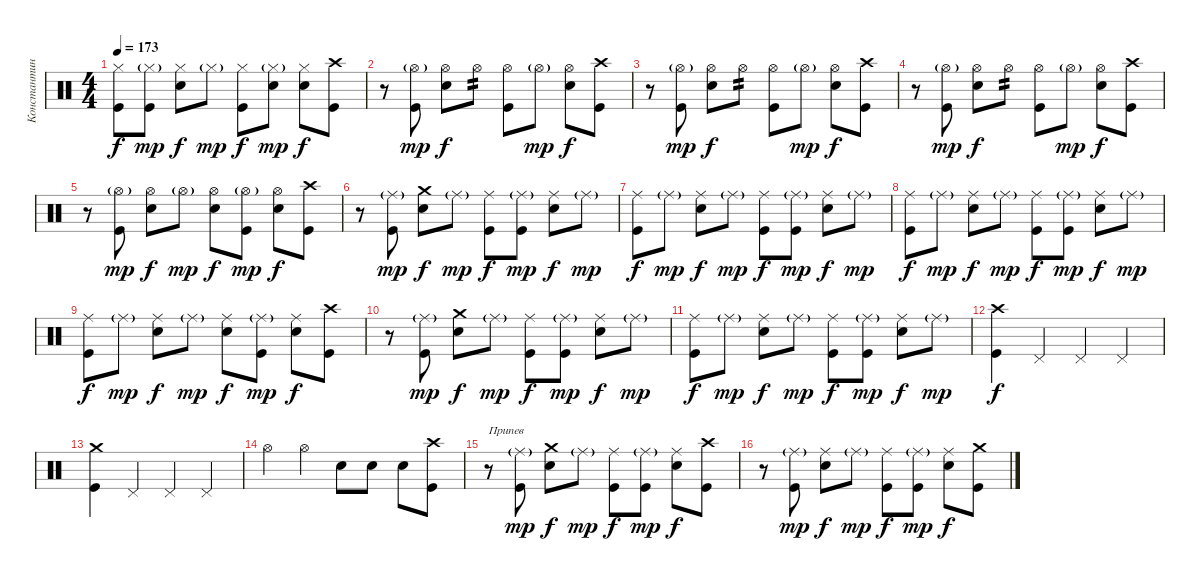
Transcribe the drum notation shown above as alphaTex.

\track ("Константин Дементьев" "Константин") {instrument percussion}
\staff {score}
\articulation defaults
\ts (4 4)
\tempo 173
\clef neutral
\ks c
("Hi-Hat (closed)" "Kick (hit)").8{dy f} ("Hi-Hat (closed)"{g} "Kick (hit)").8{dy mp} ("Hi-Hat (closed)" "Electric Snare (hit)").8{dy f} "Hi-Hat (closed)"{g}.8{dy mp} ("Hi-Hat (closed)" "Kick (hit)").8{dy f} ("Hi-Hat (closed)"{g} "Electric Snare (hit)").8{dy mp} ("Hi-Hat (closed)" "Electric Snare (hit)").8{dy f} ("Crash high (hit)" "Kick (hit)").8 |
r.8 ("Hi-Hat (open)"{g} "Kick (hit)").8{dy mp} ("Hi-Hat (open)" "Electric Snare (hit)").8{dy f} "Hi-Hat (open)".8{tp 2} ("Hi-Hat (open)" "Kick (hit)").8 "Hi-Hat (open)"{g}.8{dy mp} ("Hi-Hat (open)" "Electric Snare (hit)").8{dy f} ("Crash high (hit)" "Kick (hit)").8 |
r.8 ("Hi-Hat (open)"{g} "Kick (hit)").8{dy mp} ("Hi-Hat (open)" "Electric Snare (hit)").8{dy f} "Hi-Hat (open)".8{tp 2} ("Hi-Hat (open)" "Kick (hit)").8 "Hi-Hat (open)"{g}.8{dy mp} ("Hi-Hat (open)" "Electric Snare (hit)").8{dy f} ("Crash high (hit)" "Kick (hit)").8 |
r.8 ("Hi-Hat (open)"{g} "Kick (hit)").8{dy mp} ("Hi-Hat (open)" "Electric Snare (hit)").8{dy f} "Hi-Hat (open)".8{tp 2} ("Hi-Hat (open)" "Kick (hit)").8 "Hi-Hat (open)"{g}.8{dy mp} ("Hi-Hat (open)" "Electric Snare (hit)").8{dy f} ("Crash high (hit)" "Kick (hit)").8 |
r.8 ("Hi-Hat (open)"{g} "Kick (hit)").8{dy mp} ("Hi-Hat (open)" "Electric Snare (hit)").8{dy f} "Hi-Hat (open)"{g}.8{dy mp} ("Hi-Hat (open)" "Electric Snare (hit)").8{dy f} ("Hi-Hat (open)"{g} "Kick (hit)").8{dy mp} ("Hi-Hat (open)" "Electric Snare (hit)").8{dy f} ("Crash high (hit)" "Kick (hit)").8 |
r.8 ("Ride (middle)"{g} "Kick (hit)").8{dy mp} ("Crash medium (hit)" "Electric Snare (hit)").8{dy f} "Ride (middle)"{g}.8{dy mp} ("Ride (middle)" "Kick (hit)").8{dy f} ("Ride (middle)"{g} "Kick (hit)").8{dy mp} ("Ride (middle)" "Electric Snare (hit)").8{dy f} "Ride (middle)"{g}.8{dy mp} |
("Ride (middle)" "Kick (hit)").8{dy f} "Ride (middle)"{g}.8{dy mp} ("Ride (middle)" "Electric Snare (hit)").8{dy f} "Ride (middle)"{g}.8{dy mp} ("Ride (middle)" "Kick (hit)").8{dy f} ("Ride (middle)"{g} "Kick (hit)").8{dy mp} ("Ride (middle)" "Electric Snare (hit)").8{dy f} "Ride (middle)"{g}.8{dy mp} |
("Ride (middle)" "Kick (hit)").8{dy f} "Ride (middle)"{g}.8{dy mp} ("Ride (middle)" "Electric Snare (hit)").8{dy f} "Ride (middle)"{g}.8{dy mp} ("Ride (middle)" "Kick (hit)").8{dy f} ("Ride (middle)"{g} "Kick (hit)").8{dy mp} ("Ride (middle)" "Electric Snare (hit)").8{dy f} "Ride (middle)"{g}.8{dy mp} |
("Ride (middle)" "Kick (hit)").8{dy f} "Ride (middle)"{g}.8{dy mp} ("Ride (middle)" "Electric Snare (hit)").8{dy f} "Ride (middle)"{g}.8{dy mp} ("Ride (middle)" "Electric Snare (hit)").8{dy f} ("Ride (middle)"{g} "Kick (hit)").8{dy mp} ("Ride (middle)" "Electric Snare (hit)").8{dy f} ("Crash high (hit)" "Kick (hit)").8 |
r.8 ("Ride (middle)"{g} "Kick (hit)").8{dy mp} ("Crash medium (hit)" "Electric Snare (hit)").8{dy f} "Ride (middle)"{g}.8{dy mp} ("Ride (middle)" "Kick (hit)").8{dy f} ("Ride (middle)"{g} "Kick (hit)").8{dy mp} ("Ride (middle)" "Electric Snare (hit)").8{dy f} "Ride (middle)"{g}.8{dy mp} |
("Ride (middle)" "Kick (hit)").8{dy f} "Ride (middle)"{g}.8{dy mp} ("Ride (middle)" "Electric Snare (hit)").8{dy f} "Ride (middle)"{g}.8{dy mp} ("Ride (middle)" "Kick (hit)").8{dy f} ("Ride (middle)"{g} "Kick (hit)").8{dy mp} ("Ride (middle)" "Electric Snare (hit)").8{dy f} "Ride (middle)"{g}.8{dy mp} |
("Crash high (hit)" "Kick (hit)").4{dy f} "Pedal Hi-Hat (hit)".4 "Pedal Hi-Hat (hit)".4 "Pedal Hi-Hat (hit)".4 |
("Crash medium (hit)" "Kick (hit)").4 "Pedal Hi-Hat (hit)".4 "Pedal Hi-Hat (hit)".4 "Pedal Hi-Hat (hit)".4 |
"Hi-Hat (open)".4 "Hi-Hat (open)".4 "Electric Snare (hit)".8 "Electric Snare (hit)".8 "Electric Snare (hit)".8 ("Crash high (hit)" "Kick (hit)").8 |
r.8{txt "Припев"} ("Ride (middle)"{g} "Kick (hit)").8{dy mp} ("Crash medium (hit)" "Electric Snare (hit)").8{dy f} "Ride (middle)"{g}.8{dy mp} ("Ride (middle)" "Kick (hit)").8{dy f} ("Ride (middle)"{g} "Kick (hit)").8{dy mp} ("Ride (middle)" "Electric Snare (hit)").8{dy f} ("Crash high (hit)" "Kick (hit)").8 |
r.8 ("Ride (middle)"{g} "Kick (hit)").8{dy mp} ("Ride (middle)" "Electric Snare (hit)").8{dy f} "Ride (middle)"{g}.8{dy mp} ("Ride (middle)" "Kick (hit)").8{dy f} ("Ride (middle)"{g} "Kick (hit)").8{dy mp} ("Ride (middle)" "Electric Snare (hit)").8{dy f} ("Crash medium (hit)" "Kick (hit)").8
